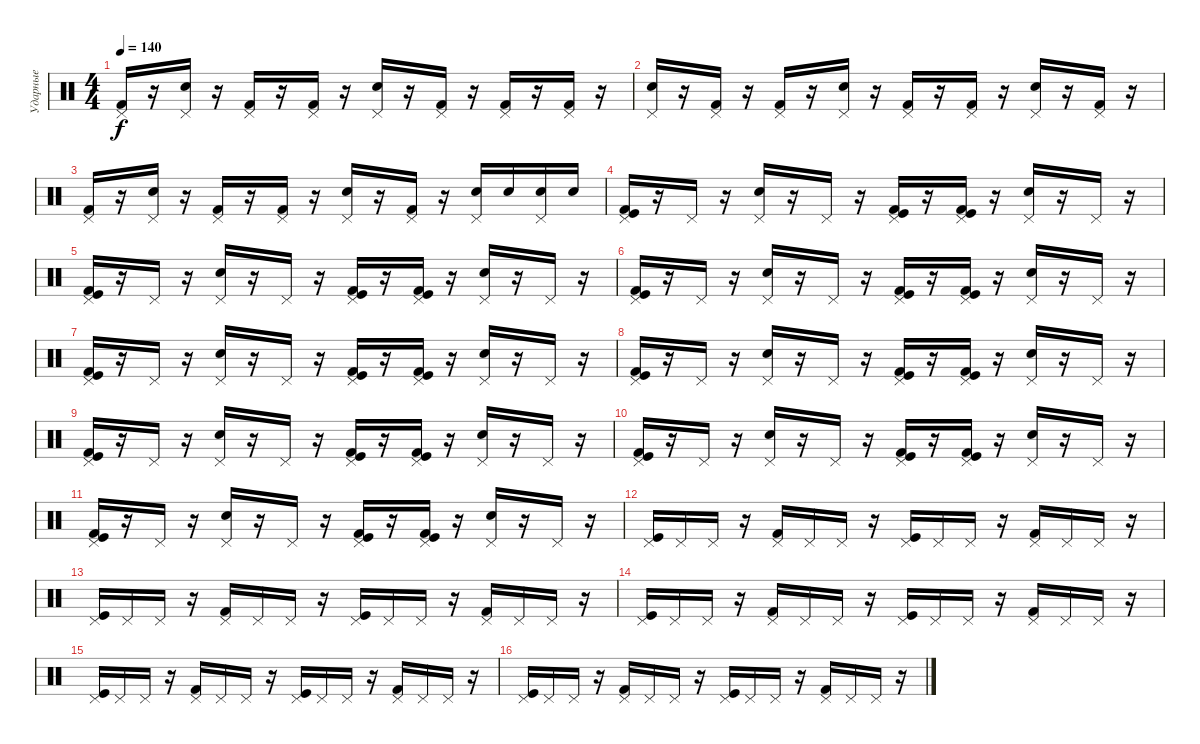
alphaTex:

\track ("Ударные" "Ударные") {instrument percussion}
\staff {score}
\articulation defaults
\ts (4 4)
\tempo 140
\clef neutral
\ks c
("Kick (hit) 2" "Pedal Hi-Hat (hit)").16{dy f} r.16 ("Snare (hit) 2" "Pedal Hi-Hat (hit)").16 r.16 ("Kick (hit) 2" "Pedal Hi-Hat (hit)").16 r.16 ("Kick (hit) 2" "Pedal Hi-Hat (hit)").16 r.16 ("Snare (hit) 2" "Pedal Hi-Hat (hit)").16 r.16 ("Kick (hit) 2" "Pedal Hi-Hat (hit)").16 r.16 ("Kick (hit) 2" "Pedal Hi-Hat (hit)").16 r.16 ("Kick (hit) 2" "Pedal Hi-Hat (hit)").16 r.16 |
("Snare (hit) 2" "Pedal Hi-Hat (hit)").16 r.16 ("Kick (hit) 2" "Pedal Hi-Hat (hit)").16 r.16 ("Kick (hit) 2" "Pedal Hi-Hat (hit)").16 r.16 ("Snare (hit) 2" "Pedal Hi-Hat (hit)").16 r.16 ("Kick (hit) 2" "Pedal Hi-Hat (hit)").16 r.16 ("Kick (hit) 2" "Pedal Hi-Hat (hit)").16 r.16 ("Snare (hit) 2" "Pedal Hi-Hat (hit)").16 r.16 ("Kick (hit) 2" "Pedal Hi-Hat (hit)").16 r.16 |
("Kick (hit) 2" "Pedal Hi-Hat (hit)").16 r.16 ("Snare (hit) 2" "Pedal Hi-Hat (hit)").16 r.16 ("Kick (hit) 2" "Pedal Hi-Hat (hit)").16 r.16 ("Kick (hit) 2" "Pedal Hi-Hat (hit)").16 r.16 ("Snare (hit) 2" "Pedal Hi-Hat (hit)").16 r.16 ("Kick (hit) 2" "Pedal Hi-Hat (hit)").16 r.16 ("Snare (hit) 2" "Pedal Hi-Hat (hit)").16 "Snare (hit) 2".16 ("Snare (hit) 2" "Pedal Hi-Hat (hit)").16 "Snare (hit) 2".16 |
("Kick (hit) 2" "Kick (hit)" "Pedal Hi-Hat (hit)").16 r.16 "Pedal Hi-Hat (hit)".16 r.16 ("Electric Snare (hit)" "Pedal Hi-Hat (hit)").16 r.16 "Pedal Hi-Hat (hit)".16 r.16 ("Kick (hit) 2" "Kick (hit)" "Pedal Hi-Hat (hit)").16 r.16 ("Kick (hit) 2" "Kick (hit)" "Pedal Hi-Hat (hit)").16 r.16 ("Electric Snare (hit)" "Pedal Hi-Hat (hit)").16 r.16 "Pedal Hi-Hat (hit)".16 r.16 |
("Kick (hit) 2" "Kick (hit)" "Pedal Hi-Hat (hit)").16 r.16 "Pedal Hi-Hat (hit)".16 r.16 ("Electric Snare (hit)" "Pedal Hi-Hat (hit)").16 r.16 "Pedal Hi-Hat (hit)".16 r.16 ("Kick (hit) 2" "Kick (hit)" "Pedal Hi-Hat (hit)").16 r.16 ("Kick (hit) 2" "Kick (hit)" "Pedal Hi-Hat (hit)").16 r.16 ("Electric Snare (hit)" "Pedal Hi-Hat (hit)").16 r.16 "Pedal Hi-Hat (hit)".16 r.16 |
("Kick (hit) 2" "Kick (hit)" "Pedal Hi-Hat (hit)").16 r.16 "Pedal Hi-Hat (hit)".16 r.16 ("Electric Snare (hit)" "Pedal Hi-Hat (hit)").16 r.16 "Pedal Hi-Hat (hit)".16 r.16 ("Kick (hit) 2" "Kick (hit)" "Pedal Hi-Hat (hit)").16 r.16 ("Kick (hit) 2" "Kick (hit)" "Pedal Hi-Hat (hit)").16 r.16 ("Electric Snare (hit)" "Pedal Hi-Hat (hit)").16 r.16 "Pedal Hi-Hat (hit)".16 r.16 |
("Kick (hit) 2" "Kick (hit)" "Pedal Hi-Hat (hit)").16 r.16 "Pedal Hi-Hat (hit)".16 r.16 ("Electric Snare (hit)" "Pedal Hi-Hat (hit)").16 r.16 "Pedal Hi-Hat (hit)".16 r.16 ("Kick (hit) 2" "Kick (hit)" "Pedal Hi-Hat (hit)").16 r.16 ("Kick (hit) 2" "Kick (hit)" "Pedal Hi-Hat (hit)").16 r.16 ("Electric Snare (hit)" "Pedal Hi-Hat (hit)").16 r.16 "Pedal Hi-Hat (hit)".16 r.16 |
("Kick (hit) 2" "Kick (hit)" "Pedal Hi-Hat (hit)").16 r.16 "Pedal Hi-Hat (hit)".16 r.16 ("Electric Snare (hit)" "Pedal Hi-Hat (hit)").16 r.16 "Pedal Hi-Hat (hit)".16 r.16 ("Kick (hit) 2" "Kick (hit)" "Pedal Hi-Hat (hit)").16 r.16 ("Kick (hit) 2" "Kick (hit)" "Pedal Hi-Hat (hit)").16 r.16 ("Electric Snare (hit)" "Pedal Hi-Hat (hit)").16 r.16 "Pedal Hi-Hat (hit)".16 r.16 |
("Kick (hit) 2" "Kick (hit)" "Pedal Hi-Hat (hit)").16 r.16 "Pedal Hi-Hat (hit)".16 r.16 ("Electric Snare (hit)" "Pedal Hi-Hat (hit)").16 r.16 "Pedal Hi-Hat (hit)".16 r.16 ("Kick (hit) 2" "Kick (hit)" "Pedal Hi-Hat (hit)").16 r.16 ("Kick (hit) 2" "Kick (hit)" "Pedal Hi-Hat (hit)").16 r.16 ("Electric Snare (hit)" "Pedal Hi-Hat (hit)").16 r.16 "Pedal Hi-Hat (hit)".16 r.16 |
("Kick (hit) 2" "Kick (hit)" "Pedal Hi-Hat (hit)").16 r.16 "Pedal Hi-Hat (hit)".16 r.16 ("Electric Snare (hit)" "Pedal Hi-Hat (hit)").16 r.16 "Pedal Hi-Hat (hit)".16 r.16 ("Kick (hit) 2" "Kick (hit)" "Pedal Hi-Hat (hit)").16 r.16 ("Kick (hit) 2" "Kick (hit)" "Pedal Hi-Hat (hit)").16 r.16 ("Electric Snare (hit)" "Pedal Hi-Hat (hit)").16 r.16 "Pedal Hi-Hat (hit)".16 r.16 |
("Kick (hit) 2" "Kick (hit)" "Pedal Hi-Hat (hit)").16 r.16 "Pedal Hi-Hat (hit)".16 r.16 ("Electric Snare (hit)" "Pedal Hi-Hat (hit)").16 r.16 "Pedal Hi-Hat (hit)".16 r.16 ("Kick (hit) 2" "Kick (hit)" "Pedal Hi-Hat (hit)").16 r.16 ("Kick (hit) 2" "Kick (hit)" "Pedal Hi-Hat (hit)").16 r.16 ("Electric Snare (hit)" "Pedal Hi-Hat (hit)").16 r.16 "Pedal Hi-Hat (hit)".16 r.16 |
("Kick (hit)" "Pedal Hi-Hat (hit)").16 "Pedal Hi-Hat (hit)".16 "Pedal Hi-Hat (hit)".16 r.16 ("Kick (hit) 2" "Pedal Hi-Hat (hit)").16 "Pedal Hi-Hat (hit)".16 "Pedal Hi-Hat (hit)".16 r.16 ("Kick (hit)" "Pedal Hi-Hat (hit)").16 "Pedal Hi-Hat (hit)".16 "Pedal Hi-Hat (hit)".16 r.16 ("Kick (hit) 2" "Pedal Hi-Hat (hit)").16 "Pedal Hi-Hat (hit)".16 "Pedal Hi-Hat (hit)".16 r.16 |
("Kick (hit)" "Pedal Hi-Hat (hit)").16 "Pedal Hi-Hat (hit)".16 "Pedal Hi-Hat (hit)".16 r.16 ("Kick (hit) 2" "Pedal Hi-Hat (hit)").16 "Pedal Hi-Hat (hit)".16 "Pedal Hi-Hat (hit)".16 r.16 ("Kick (hit)" "Pedal Hi-Hat (hit)").16 "Pedal Hi-Hat (hit)".16 "Pedal Hi-Hat (hit)".16 r.16 ("Kick (hit) 2" "Pedal Hi-Hat (hit)").16 "Pedal Hi-Hat (hit)".16 "Pedal Hi-Hat (hit)".16 r.16 |
("Kick (hit)" "Pedal Hi-Hat (hit)").16 "Pedal Hi-Hat (hit)".16 "Pedal Hi-Hat (hit)".16 r.16 ("Kick (hit) 2" "Pedal Hi-Hat (hit)").16 "Pedal Hi-Hat (hit)".16 "Pedal Hi-Hat (hit)".16 r.16 ("Kick (hit)" "Pedal Hi-Hat (hit)").16 "Pedal Hi-Hat (hit)".16 "Pedal Hi-Hat (hit)".16 r.16 ("Kick (hit) 2" "Pedal Hi-Hat (hit)").16 "Pedal Hi-Hat (hit)".16 "Pedal Hi-Hat (hit)".16 r.16 |
("Kick (hit)" "Pedal Hi-Hat (hit)").16 "Pedal Hi-Hat (hit)".16 "Pedal Hi-Hat (hit)".16 r.16 ("Kick (hit) 2" "Pedal Hi-Hat (hit)").16 "Pedal Hi-Hat (hit)".16 "Pedal Hi-Hat (hit)".16 r.16 ("Kick (hit)" "Pedal Hi-Hat (hit)").16 "Pedal Hi-Hat (hit)".16 "Pedal Hi-Hat (hit)".16 r.16 ("Kick (hit) 2" "Pedal Hi-Hat (hit)").16 "Pedal Hi-Hat (hit)".16 "Pedal Hi-Hat (hit)".16 r.16 |
("Kick (hit)" "Pedal Hi-Hat (hit)").16 "Pedal Hi-Hat (hit)".16 "Pedal Hi-Hat (hit)".16 r.16 ("Kick (hit) 2" "Pedal Hi-Hat (hit)").16 "Pedal Hi-Hat (hit)".16 "Pedal Hi-Hat (hit)".16 r.16 ("Kick (hit)" "Pedal Hi-Hat (hit)").16 "Pedal Hi-Hat (hit)".16 "Pedal Hi-Hat (hit)".16 r.16 ("Kick (hit) 2" "Pedal Hi-Hat (hit)").16 "Pedal Hi-Hat (hit)".16 "Pedal Hi-Hat (hit)".16 r.16
